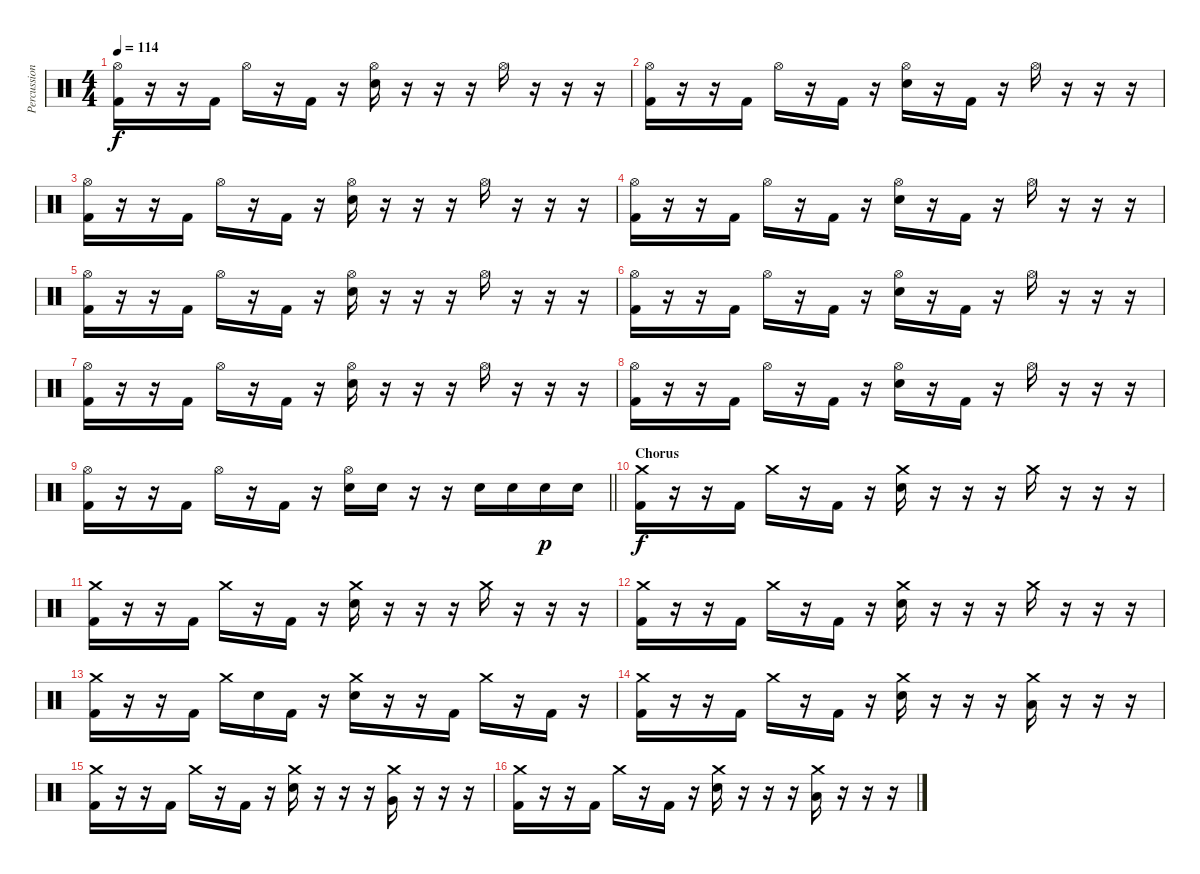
\track ("Percussion" "Percussion") {instrument percussion}
\staff {score}
\articulation defaults
\ts (4 4)
\tempo 114
\clef neutral
\ks c
("Hi-Hat (open)" "Kick (hit) 2").16{dy f} r.16 r.16 "Kick (hit) 2".16 "Hi-Hat (open)".16 r.16 "Kick (hit) 2".16 r.16 ("Hi-Hat (open)" "Electric Snare (hit)").16 r.16 r.16 r.16 "Hi-Hat (open)".16 r.16 r.16 r.16 |
("Hi-Hat (open)" "Kick (hit) 2").16 r.16 r.16 "Kick (hit) 2".16 "Hi-Hat (open)".16 r.16 "Kick (hit) 2".16 r.16 ("Hi-Hat (open)" "Electric Snare (hit)").16 r.16 "Kick (hit) 2".16 r.16 "Hi-Hat (open)".16 r.16 r.16 r.16 |
("Hi-Hat (open)" "Kick (hit) 2").16 r.16 r.16 "Kick (hit) 2".16 "Hi-Hat (open)".16 r.16 "Kick (hit) 2".16 r.16 ("Hi-Hat (open)" "Electric Snare (hit)").16 r.16 r.16 r.16 "Hi-Hat (open)".16 r.16 r.16 r.16 |
("Hi-Hat (open)" "Kick (hit) 2").16 r.16 r.16 "Kick (hit) 2".16 "Hi-Hat (open)".16 r.16 "Kick (hit) 2".16 r.16 ("Hi-Hat (open)" "Electric Snare (hit)").16 r.16 "Kick (hit) 2".16 r.16 "Hi-Hat (open)".16 r.16 r.16 r.16 |
("Hi-Hat (open)" "Kick (hit) 2").16 r.16 r.16 "Kick (hit) 2".16 "Hi-Hat (open)".16 r.16 "Kick (hit) 2".16 r.16 ("Hi-Hat (open)" "Electric Snare (hit)").16 r.16 r.16 r.16 "Hi-Hat (open)".16 r.16 r.16 r.16 |
("Hi-Hat (open)" "Kick (hit) 2").16 r.16 r.16 "Kick (hit) 2".16 "Hi-Hat (open)".16 r.16 "Kick (hit) 2".16 r.16 ("Hi-Hat (open)" "Electric Snare (hit)").16 r.16 "Kick (hit) 2".16 r.16 "Hi-Hat (open)".16 r.16 r.16 r.16 |
("Hi-Hat (open)" "Kick (hit) 2").16 r.16 r.16 "Kick (hit) 2".16 "Hi-Hat (open)".16 r.16 "Kick (hit) 2".16 r.16 ("Hi-Hat (open)" "Electric Snare (hit)").16 r.16 r.16 r.16 "Hi-Hat (open)".16 r.16 r.16 r.16 |
("Hi-Hat (open)" "Kick (hit) 2").16 r.16 r.16 "Kick (hit) 2".16 "Hi-Hat (open)".16 r.16 "Kick (hit) 2".16 r.16 ("Hi-Hat (open)" "Electric Snare (hit)").16 r.16 "Kick (hit) 2".16 r.16 "Hi-Hat (open)".16 r.16 r.16 r.16 |
\barLineRight lightlight
("Hi-Hat (open)" "Kick (hit) 2").16 r.16 r.16 "Kick (hit) 2".16 "Hi-Hat (open)".16 r.16 "Kick (hit) 2".16 r.16 ("Hi-Hat (open)" "Electric Snare (hit)").16 "Electric Snare (hit)".16 r.16 r.16 "Electric Snare (hit)".16 "Electric Snare (hit)".16 "Electric Snare (hit)".16{dy p} "Electric Snare (hit)".16 |
\section ("" "Chorus")
("Crash medium (hit)" "Kick (hit) 2").16{dy f} r.16 r.16 "Kick (hit) 2".16 "Crash medium (hit)".16 r.16 "Kick (hit) 2".16 r.16 ("Crash medium (hit)" "Electric Snare (hit)").16 r.16 r.16 r.16 "Crash medium (hit)".16 r.16 r.16 r.16 |
("Crash medium (hit)" "Kick (hit) 2").16 r.16 r.16 "Kick (hit) 2".16 "Crash medium (hit)".16 r.16 "Kick (hit) 2".16 r.16 ("Crash medium (hit)" "Electric Snare (hit)").16 r.16 r.16 r.16 "Crash medium (hit)".16 r.16 r.16 r.16 |
("Crash medium (hit)" "Kick (hit) 2").16 r.16 r.16 "Kick (hit) 2".16 "Crash medium (hit)".16 r.16 "Kick (hit) 2".16 r.16 ("Crash medium (hit)" "Electric Snare (hit)").16 r.16 r.16 r.16 "Crash medium (hit)".16 r.16 r.16 r.16 |
("Crash medium (hit)" "Kick (hit) 2").16 r.16 r.16 "Kick (hit) 2".16 "Crash medium (hit)".16 "Electric Snare (hit)".16 "Kick (hit) 2".16 r.16 ("Crash medium (hit)" "Electric Snare (hit)").16 r.16 r.16 "Kick (hit) 2".16 "Crash medium (hit)".16 r.16 "Kick (hit) 2".16 r.16 |
("Crash medium (hit)" "Kick (hit) 2").16 r.16 r.16 "Kick (hit) 2".16 "Crash medium (hit)".16 r.16 "Kick (hit) 2".16 r.16 ("Crash medium (hit)" "Electric Snare (hit)").16 r.16 r.16 r.16 ("Low Tom (hit)" "Crash medium (hit)").16 r.16 r.16 r.16 |
("Crash medium (hit)" "Kick (hit) 2").16 r.16 r.16 "Kick (hit) 2".16 "Crash medium (hit)".16 r.16 "Kick (hit) 2".16 r.16 ("Crash medium (hit)" "Electric Snare (hit)").16 r.16 r.16 r.16 ("Very Low Tom (hit)" "Crash medium (hit)").16 r.16 r.16 r.16 |
("Crash medium (hit)" "Kick (hit) 2").16 r.16 r.16 "Kick (hit) 2".16 "Crash medium (hit)".16 r.16 "Kick (hit) 2".16 r.16 ("Crash medium (hit)" "Electric Snare (hit)").16 r.16 r.16 r.16 ("Low Floor Tom (hit)" "Crash medium (hit)").16 r.16 r.16 r.16
